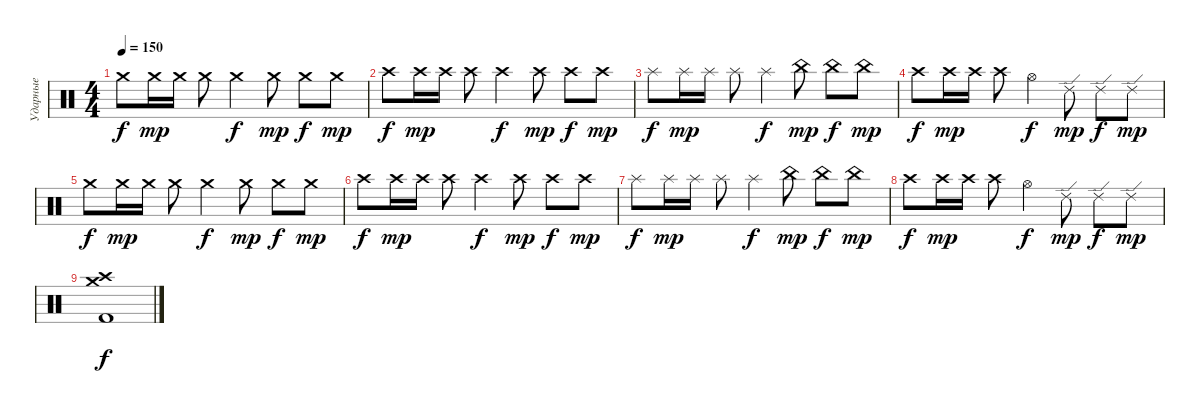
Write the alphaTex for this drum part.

\track ("Ударные" "Ударные") {instrument percussion}
\staff {score}
\articulation defaults
\ts (4 4)
\tempo 150
\clef neutral
\ks c "Crash medium (hit)".8{dy f} "Crash medium (hit)".16{dy mp} "Crash medium (hit)".16 "Crash medium (hit)".8 "Crash medium (hit)".4{dy f} "Crash medium (hit)".8{dy mp} "Crash medium (hit)".8{dy f} "Crash medium (hit)".8{dy mp}
|
"Crash high (hit)".8{dy f} "Crash high (hit)".16{dy mp} "Crash high (hit)".16 "Crash high (hit)".8 "Crash high (hit)".4{dy f} "Crash high (hit)".8{dy mp} "Crash high (hit)".8{dy f} "Crash high (hit)".8{dy mp} |
"Splash (hit)".8{dy f} "Splash (hit)".16{dy mp} "Splash (hit)".16 "Splash (hit)".8 "Splash (hit)".4{dy f} "China (hit)".8{dy mp} "China (hit)".8{dy f} "China (hit)".8{dy mp} |
"Crash high (hit)".8{dy f} "Crash high (hit)".16{dy mp} "Crash high (hit)".16 "Crash high (hit)".8 "Hi-Hat (open)".4{dy f} "Ride (edge) 2".8{dy mp} "Ride (edge) 2".8{dy f} "Ride (edge) 2".8{dy mp} |
"Crash medium (hit)".8{dy f} "Crash medium (hit)".16{dy mp} "Crash medium (hit)".16 "Crash medium (hit)".8 "Crash medium (hit)".4{dy f} "Crash medium (hit)".8{dy mp} "Crash medium (hit)".8{dy f} "Crash medium (hit)".8{dy mp} |
"Crash high (hit)".8{dy f} "Crash high (hit)".16{dy mp} "Crash high (hit)".16 "Crash high (hit)".8 "Crash high (hit)".4{dy f} "Crash high (hit)".8{dy mp} "Crash high (hit)".8{dy f} "Crash high (hit)".8{dy mp} |
"Splash (hit)".8{dy f} "Splash (hit)".16{dy mp} "Splash (hit)".16 "Splash (hit)".8 "Splash (hit)".4{dy f} "China (hit)".8{dy mp} "China (hit)".8{dy f} "China (hit)".8{dy mp} |
"Crash high (hit)".8{dy f} "Crash high (hit)".16{dy mp} "Crash high (hit)".16 "Crash high (hit)".8 "Hi-Hat (open)".4{dy f} "Ride (edge) 2".8{dy mp} "Ride (edge) 2".8{dy f} "Ride (edge) 2".8{dy mp} |
("Crash high (hit)" "Crash medium (hit)" "Kick (hit) 2").1{dy f}
